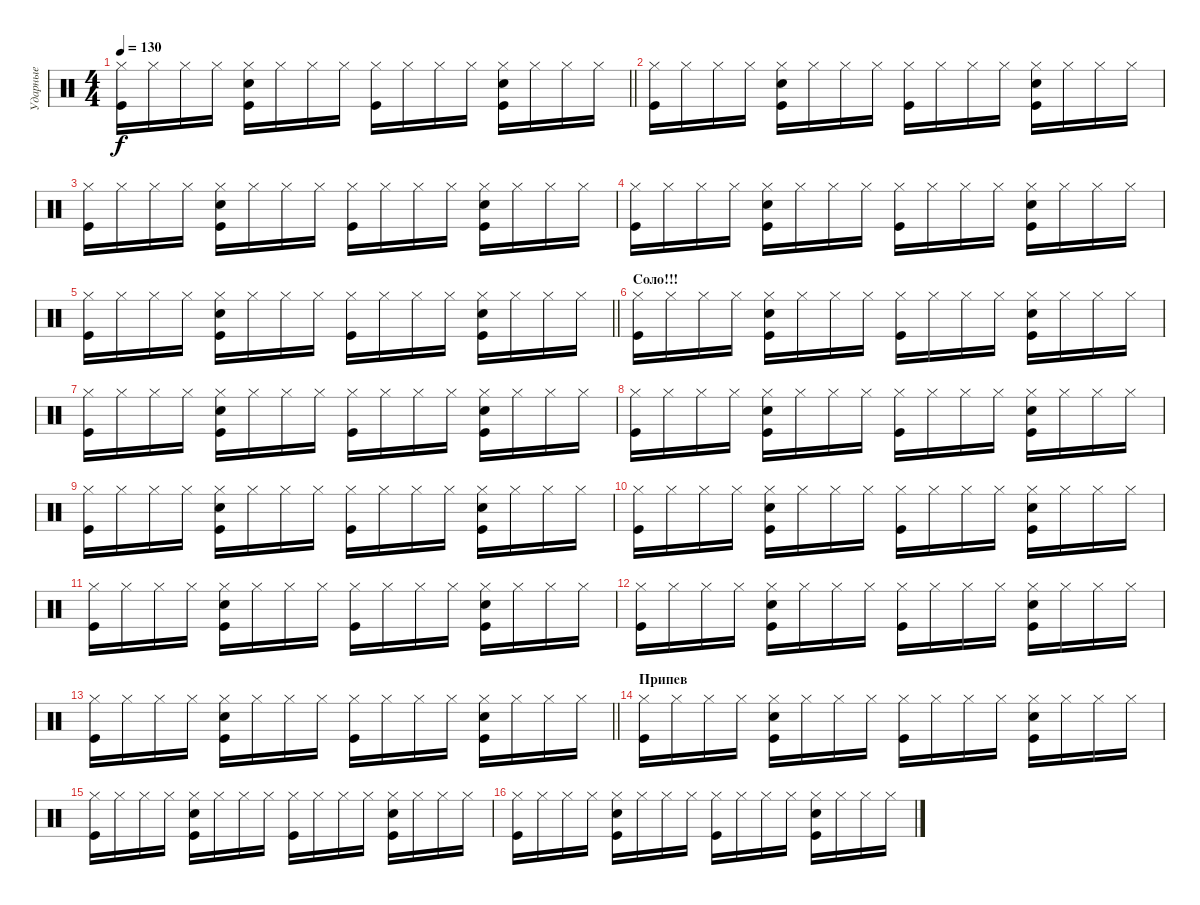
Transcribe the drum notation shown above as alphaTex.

\track ("Ударные" "Ударные") {instrument percussion}
\staff {score}
\articulation defaults
\ts (4 4)
\tempo 130
\clef neutral
\barLineRight lightlight
\ks c
("Hi-Hat (closed)" "Kick (hit)").16{dy f} "Hi-Hat (closed)".16 "Hi-Hat (closed)".16 "Hi-Hat (closed)".16 ("Hi-Hat (closed)" "Kick (hit)" "Snare (hit) 2").16 "Hi-Hat (closed)".16 "Hi-Hat (closed)".16 "Hi-Hat (closed)".16 ("Hi-Hat (closed)" "Kick (hit)").16 "Hi-Hat (closed)".16 "Hi-Hat (closed)".16 "Hi-Hat (closed)".16 ("Hi-Hat (closed)" "Kick (hit)" "Snare (hit) 2").16 "Hi-Hat (closed)".16 "Hi-Hat (closed)".16 "Hi-Hat (closed)".16 |
("Hi-Hat (closed)" "Kick (hit)").16 "Hi-Hat (closed)".16 "Hi-Hat (closed)".16 "Hi-Hat (closed)".16 ("Hi-Hat (closed)" "Kick (hit)" "Snare (hit) 2").16 "Hi-Hat (closed)".16 "Hi-Hat (closed)".16 "Hi-Hat (closed)".16 ("Hi-Hat (closed)" "Kick (hit)").16 "Hi-Hat (closed)".16 "Hi-Hat (closed)".16 "Hi-Hat (closed)".16 ("Hi-Hat (closed)" "Kick (hit)" "Snare (hit) 2").16 "Hi-Hat (closed)".16 "Hi-Hat (closed)".16 "Hi-Hat (closed)".16 |
("Hi-Hat (closed)" "Kick (hit)").16 "Hi-Hat (closed)".16 "Hi-Hat (closed)".16 "Hi-Hat (closed)".16 ("Hi-Hat (closed)" "Kick (hit)" "Snare (hit) 2").16 "Hi-Hat (closed)".16 "Hi-Hat (closed)".16 "Hi-Hat (closed)".16 ("Hi-Hat (closed)" "Kick (hit)").16 "Hi-Hat (closed)".16 "Hi-Hat (closed)".16 "Hi-Hat (closed)".16 ("Hi-Hat (closed)" "Kick (hit)" "Snare (hit) 2").16 "Hi-Hat (closed)".16 "Hi-Hat (closed)".16 "Hi-Hat (closed)".16 |
("Hi-Hat (closed)" "Kick (hit)").16 "Hi-Hat (closed)".16 "Hi-Hat (closed)".16 "Hi-Hat (closed)".16 ("Hi-Hat (closed)" "Kick (hit)" "Snare (hit) 2").16 "Hi-Hat (closed)".16 "Hi-Hat (closed)".16 "Hi-Hat (closed)".16 ("Hi-Hat (closed)" "Kick (hit)").16 "Hi-Hat (closed)".16 "Hi-Hat (closed)".16 "Hi-Hat (closed)".16 ("Hi-Hat (closed)" "Kick (hit)" "Snare (hit) 2").16 "Hi-Hat (closed)".16 "Hi-Hat (closed)".16 "Hi-Hat (closed)".16 |
\barLineRight lightlight
("Hi-Hat (closed)" "Kick (hit)").16 "Hi-Hat (closed)".16 "Hi-Hat (closed)".16 "Hi-Hat (closed)".16 ("Hi-Hat (closed)" "Kick (hit)" "Snare (hit) 2").16 "Hi-Hat (closed)".16 "Hi-Hat (closed)".16 "Hi-Hat (closed)".16 ("Hi-Hat (closed)" "Kick (hit)").16 "Hi-Hat (closed)".16 "Hi-Hat (closed)".16 "Hi-Hat (closed)".16 ("Hi-Hat (closed)" "Kick (hit)" "Snare (hit) 2").16 "Hi-Hat (closed)".16 "Hi-Hat (closed)".16 "Hi-Hat (closed)".16 |
\section ("" "Соло!!!")
("Hi-Hat (closed)" "Kick (hit)").16 "Hi-Hat (closed)".16 "Hi-Hat (closed)".16 "Hi-Hat (closed)".16 ("Hi-Hat (closed)" "Kick (hit)" "Snare (hit) 2").16 "Hi-Hat (closed)".16 "Hi-Hat (closed)".16 "Hi-Hat (closed)".16 ("Hi-Hat (closed)" "Kick (hit)").16 "Hi-Hat (closed)".16 "Hi-Hat (closed)".16 "Hi-Hat (closed)".16 ("Hi-Hat (closed)" "Kick (hit)" "Snare (hit) 2").16 "Hi-Hat (closed)".16 "Hi-Hat (closed)".16 "Hi-Hat (closed)".16 |
("Hi-Hat (closed)" "Kick (hit)").16 "Hi-Hat (closed)".16 "Hi-Hat (closed)".16 "Hi-Hat (closed)".16 ("Hi-Hat (closed)" "Kick (hit)" "Snare (hit) 2").16 "Hi-Hat (closed)".16 "Hi-Hat (closed)".16 "Hi-Hat (closed)".16 ("Hi-Hat (closed)" "Kick (hit)").16 "Hi-Hat (closed)".16 "Hi-Hat (closed)".16 "Hi-Hat (closed)".16 ("Hi-Hat (closed)" "Kick (hit)" "Snare (hit) 2").16 "Hi-Hat (closed)".16 "Hi-Hat (closed)".16 "Hi-Hat (closed)".16 |
("Hi-Hat (closed)" "Kick (hit)").16 "Hi-Hat (closed)".16 "Hi-Hat (closed)".16 "Hi-Hat (closed)".16 ("Hi-Hat (closed)" "Kick (hit)" "Snare (hit) 2").16 "Hi-Hat (closed)".16 "Hi-Hat (closed)".16 "Hi-Hat (closed)".16 ("Hi-Hat (closed)" "Kick (hit)").16 "Hi-Hat (closed)".16 "Hi-Hat (closed)".16 "Hi-Hat (closed)".16 ("Hi-Hat (closed)" "Kick (hit)" "Snare (hit) 2").16 "Hi-Hat (closed)".16 "Hi-Hat (closed)".16 "Hi-Hat (closed)".16 |
("Hi-Hat (closed)" "Kick (hit)").16 "Hi-Hat (closed)".16 "Hi-Hat (closed)".16 "Hi-Hat (closed)".16 ("Hi-Hat (closed)" "Kick (hit)" "Snare (hit) 2").16 "Hi-Hat (closed)".16 "Hi-Hat (closed)".16 "Hi-Hat (closed)".16 ("Hi-Hat (closed)" "Kick (hit)").16 "Hi-Hat (closed)".16 "Hi-Hat (closed)".16 "Hi-Hat (closed)".16 ("Hi-Hat (closed)" "Kick (hit)" "Snare (hit) 2").16 "Hi-Hat (closed)".16 "Hi-Hat (closed)".16 "Hi-Hat (closed)".16 |
("Hi-Hat (closed)" "Kick (hit)").16 "Hi-Hat (closed)".16 "Hi-Hat (closed)".16 "Hi-Hat (closed)".16 ("Hi-Hat (closed)" "Kick (hit)" "Snare (hit) 2").16 "Hi-Hat (closed)".16 "Hi-Hat (closed)".16 "Hi-Hat (closed)".16 ("Hi-Hat (closed)" "Kick (hit)").16 "Hi-Hat (closed)".16 "Hi-Hat (closed)".16 "Hi-Hat (closed)".16 ("Hi-Hat (closed)" "Kick (hit)" "Snare (hit) 2").16 "Hi-Hat (closed)".16 "Hi-Hat (closed)".16 "Hi-Hat (closed)".16 |
("Hi-Hat (closed)" "Kick (hit)").16 "Hi-Hat (closed)".16 "Hi-Hat (closed)".16 "Hi-Hat (closed)".16 ("Hi-Hat (closed)" "Kick (hit)" "Snare (hit) 2").16 "Hi-Hat (closed)".16 "Hi-Hat (closed)".16 "Hi-Hat (closed)".16 ("Hi-Hat (closed)" "Kick (hit)").16 "Hi-Hat (closed)".16 "Hi-Hat (closed)".16 "Hi-Hat (closed)".16 ("Hi-Hat (closed)" "Kick (hit)" "Snare (hit) 2").16 "Hi-Hat (closed)".16 "Hi-Hat (closed)".16 "Hi-Hat (closed)".16 |
("Hi-Hat (closed)" "Kick (hit)").16 "Hi-Hat (closed)".16 "Hi-Hat (closed)".16 "Hi-Hat (closed)".16 ("Hi-Hat (closed)" "Kick (hit)" "Snare (hit) 2").16 "Hi-Hat (closed)".16 "Hi-Hat (closed)".16 "Hi-Hat (closed)".16 ("Hi-Hat (closed)" "Kick (hit)").16 "Hi-Hat (closed)".16 "Hi-Hat (closed)".16 "Hi-Hat (closed)".16 ("Hi-Hat (closed)" "Kick (hit)" "Snare (hit) 2").16 "Hi-Hat (closed)".16 "Hi-Hat (closed)".16 "Hi-Hat (closed)".16 |
\barLineRight lightlight
("Hi-Hat (closed)" "Kick (hit)").16 "Hi-Hat (closed)".16 "Hi-Hat (closed)".16 "Hi-Hat (closed)".16 ("Hi-Hat (closed)" "Kick (hit)" "Snare (hit) 2").16 "Hi-Hat (closed)".16 "Hi-Hat (closed)".16 "Hi-Hat (closed)".16 ("Hi-Hat (closed)" "Kick (hit)").16 "Hi-Hat (closed)".16 "Hi-Hat (closed)".16 "Hi-Hat (closed)".16 ("Hi-Hat (closed)" "Kick (hit)" "Snare (hit) 2").16 "Hi-Hat (closed)".16 "Hi-Hat (closed)".16 "Hi-Hat (closed)".16 |
\section ("" "Припев")
("Hi-Hat (closed)" "Kick (hit)").16 "Hi-Hat (closed)".16 "Hi-Hat (closed)".16 "Hi-Hat (closed)".16 ("Hi-Hat (closed)" "Kick (hit)" "Snare (hit) 2").16 "Hi-Hat (closed)".16 "Hi-Hat (closed)".16 "Hi-Hat (closed)".16 ("Hi-Hat (closed)" "Kick (hit)").16 "Hi-Hat (closed)".16 "Hi-Hat (closed)".16 "Hi-Hat (closed)".16 ("Hi-Hat (closed)" "Kick (hit)" "Snare (hit) 2").16 "Hi-Hat (closed)".16 "Hi-Hat (closed)".16 "Hi-Hat (closed)".16 |
("Hi-Hat (closed)" "Kick (hit)").16 "Hi-Hat (closed)".16 "Hi-Hat (closed)".16 "Hi-Hat (closed)".16 ("Hi-Hat (closed)" "Kick (hit)" "Snare (hit) 2").16 "Hi-Hat (closed)".16 "Hi-Hat (closed)".16 "Hi-Hat (closed)".16 ("Hi-Hat (closed)" "Kick (hit)").16 "Hi-Hat (closed)".16 "Hi-Hat (closed)".16 "Hi-Hat (closed)".16 ("Hi-Hat (closed)" "Kick (hit)" "Snare (hit) 2").16 "Hi-Hat (closed)".16 "Hi-Hat (closed)".16 "Hi-Hat (closed)".16 |
("Hi-Hat (closed)" "Kick (hit)").16 "Hi-Hat (closed)".16 "Hi-Hat (closed)".16 "Hi-Hat (closed)".16 ("Hi-Hat (closed)" "Kick (hit)" "Snare (hit) 2").16 "Hi-Hat (closed)".16 "Hi-Hat (closed)".16 "Hi-Hat (closed)".16 ("Hi-Hat (closed)" "Kick (hit)").16 "Hi-Hat (closed)".16 "Hi-Hat (closed)".16 "Hi-Hat (closed)".16 ("Hi-Hat (closed)" "Kick (hit)" "Snare (hit) 2").16 "Hi-Hat (closed)".16 "Hi-Hat (closed)".16 "Hi-Hat (closed)".16
